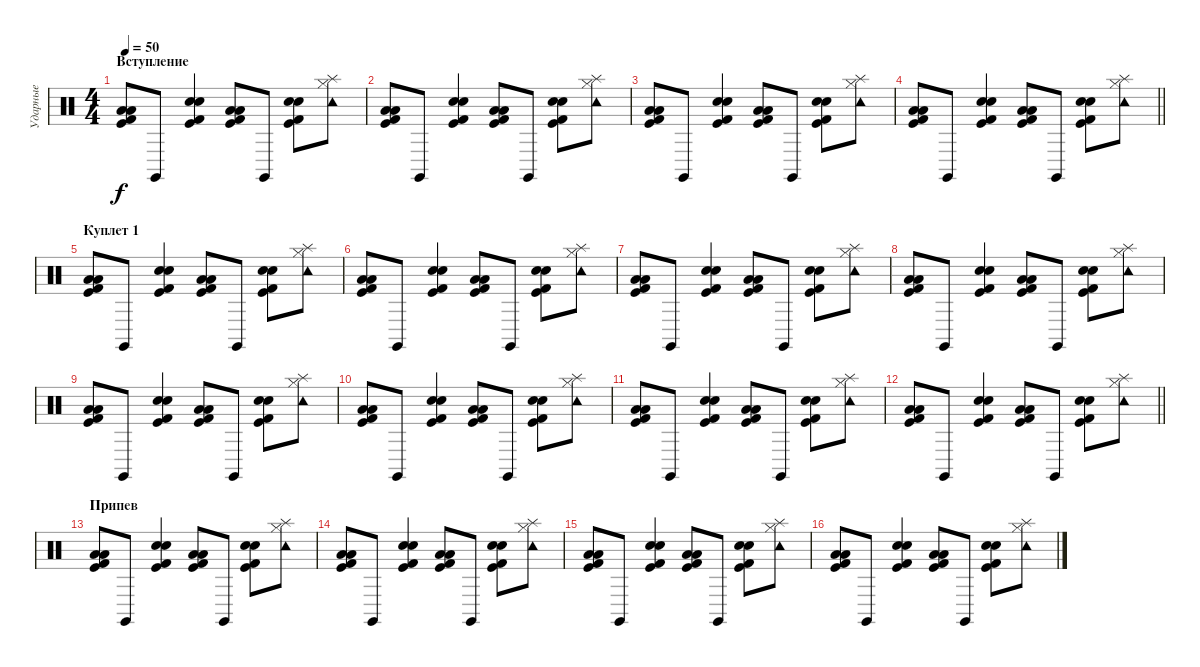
\track ("Ударные" "Ударные") {instrument percussion}
\staff
\articulation defaults
\ts (4 4)
\section ("" "Вступление")
\tempo 50
\clef neutral
\ks c
("Kick (hit) 2" "Low Floor Tom (hit)" "Kick (hit)" "Low Tom (hit)").8{dy f} "Claves (hit)".8 ("Kick (hit) 2" "Electric Snare (hit)" "Kick (hit)" "Snare (hit) 2").4 ("Kick (hit) 2" "Low Floor Tom (hit)" "Kick (hit)" "Low Tom (hit)").8 "Claves (hit)".8 ("Kick (hit) 2" "Electric Snare (hit)" "Kick (hit)" "Snare (hit) 2").8 ("Hi-Hat (closed)" "Splash (hit)" "Tambourine (hit)").8 |
("Kick (hit) 2" "Low Floor Tom (hit)" "Kick (hit)" "Low Tom (hit)").8 "Claves (hit)".8 ("Kick (hit) 2" "Electric Snare (hit)" "Kick (hit)" "Snare (hit) 2").4 ("Kick (hit) 2" "Low Floor Tom (hit)" "Kick (hit)" "Low Tom (hit)").8 "Claves (hit)".8 ("Kick (hit) 2" "Electric Snare (hit)" "Kick (hit)" "Snare (hit) 2").8 ("Hi-Hat (closed)" "Splash (hit)" "Tambourine (hit)").8 |
("Kick (hit) 2" "Low Floor Tom (hit)" "Kick (hit)" "Low Tom (hit)").8 "Claves (hit)".8 ("Kick (hit) 2" "Electric Snare (hit)" "Kick (hit)" "Snare (hit) 2").4 ("Kick (hit) 2" "Low Floor Tom (hit)" "Kick (hit)" "Low Tom (hit)").8 "Claves (hit)".8 ("Kick (hit) 2" "Electric Snare (hit)" "Kick (hit)" "Snare (hit) 2").8 ("Hi-Hat (closed)" "Splash (hit)" "Tambourine (hit)").8 |
\barLineRight lightlight
("Kick (hit) 2" "Low Floor Tom (hit)" "Kick (hit)" "Low Tom (hit)").8 "Claves (hit)".8 ("Kick (hit) 2" "Electric Snare (hit)" "Kick (hit)" "Snare (hit) 2").4 ("Kick (hit) 2" "Low Floor Tom (hit)" "Kick (hit)" "Low Tom (hit)").8 "Claves (hit)".8 ("Kick (hit) 2" "Electric Snare (hit)" "Kick (hit)" "Snare (hit) 2").8 ("Hi-Hat (closed)" "Splash (hit)" "Tambourine (hit)").8 |
\section ("" "Куплет 1")
("Kick (hit) 2" "Low Floor Tom (hit)" "Kick (hit)" "Low Tom (hit)").8 "Claves (hit)".8 ("Kick (hit) 2" "Electric Snare (hit)" "Kick (hit)" "Snare (hit) 2").4 ("Kick (hit) 2" "Low Floor Tom (hit)" "Kick (hit)" "Low Tom (hit)").8 "Claves (hit)".8 ("Kick (hit) 2" "Electric Snare (hit)" "Kick (hit)" "Snare (hit) 2").8 ("Hi-Hat (closed)" "Splash (hit)" "Tambourine (hit)").8 |
("Kick (hit) 2" "Low Floor Tom (hit)" "Kick (hit)" "Low Tom (hit)").8 "Claves (hit)".8 ("Kick (hit) 2" "Electric Snare (hit)" "Kick (hit)" "Snare (hit) 2").4 ("Kick (hit) 2" "Low Floor Tom (hit)" "Kick (hit)" "Low Tom (hit)").8 "Claves (hit)".8 ("Kick (hit) 2" "Electric Snare (hit)" "Kick (hit)" "Snare (hit) 2").8 ("Hi-Hat (closed)" "Splash (hit)" "Tambourine (hit)").8 |
("Kick (hit) 2" "Low Floor Tom (hit)" "Kick (hit)" "Low Tom (hit)").8 "Claves (hit)".8 ("Kick (hit) 2" "Electric Snare (hit)" "Kick (hit)" "Snare (hit) 2").4 ("Kick (hit) 2" "Low Floor Tom (hit)" "Kick (hit)" "Low Tom (hit)").8 "Claves (hit)".8 ("Kick (hit) 2" "Electric Snare (hit)" "Kick (hit)" "Snare (hit) 2").8 ("Hi-Hat (closed)" "Splash (hit)" "Tambourine (hit)").8 |
("Kick (hit) 2" "Low Floor Tom (hit)" "Kick (hit)" "Low Tom (hit)").8 "Claves (hit)".8 ("Kick (hit) 2" "Electric Snare (hit)" "Kick (hit)" "Snare (hit) 2").4 ("Kick (hit) 2" "Low Floor Tom (hit)" "Kick (hit)" "Low Tom (hit)").8 "Claves (hit)".8 ("Kick (hit) 2" "Electric Snare (hit)" "Kick (hit)" "Snare (hit) 2").8 ("Hi-Hat (closed)" "Splash (hit)" "Tambourine (hit)").8 |
("Kick (hit) 2" "Low Floor Tom (hit)" "Kick (hit)" "Low Tom (hit)").8 "Claves (hit)".8 ("Kick (hit) 2" "Electric Snare (hit)" "Kick (hit)" "Snare (hit) 2").4 ("Kick (hit) 2" "Low Floor Tom (hit)" "Kick (hit)" "Low Tom (hit)").8 "Claves (hit)".8 ("Kick (hit) 2" "Electric Snare (hit)" "Kick (hit)" "Snare (hit) 2").8 ("Hi-Hat (closed)" "Splash (hit)" "Tambourine (hit)").8 |
("Kick (hit) 2" "Low Floor Tom (hit)" "Kick (hit)" "Low Tom (hit)").8 "Claves (hit)".8 ("Kick (hit) 2" "Electric Snare (hit)" "Kick (hit)" "Snare (hit) 2").4 ("Kick (hit) 2" "Low Floor Tom (hit)" "Kick (hit)" "Low Tom (hit)").8 "Claves (hit)".8 ("Kick (hit) 2" "Electric Snare (hit)" "Kick (hit)" "Snare (hit) 2").8 ("Hi-Hat (closed)" "Splash (hit)" "Tambourine (hit)").8 |
("Kick (hit) 2" "Low Floor Tom (hit)" "Kick (hit)" "Low Tom (hit)").8 "Claves (hit)".8 ("Kick (hit) 2" "Electric Snare (hit)" "Kick (hit)" "Snare (hit) 2").4 ("Kick (hit) 2" "Low Floor Tom (hit)" "Kick (hit)" "Low Tom (hit)").8 "Claves (hit)".8 ("Kick (hit) 2" "Electric Snare (hit)" "Kick (hit)" "Snare (hit) 2").8 ("Hi-Hat (closed)" "Splash (hit)" "Tambourine (hit)").8 |
\barLineRight lightlight
("Kick (hit) 2" "Low Floor Tom (hit)" "Kick (hit)" "Low Tom (hit)").8 "Claves (hit)".8 ("Kick (hit) 2" "Electric Snare (hit)" "Kick (hit)" "Snare (hit) 2").4 ("Kick (hit) 2" "Low Floor Tom (hit)" "Kick (hit)" "Low Tom (hit)").8 "Claves (hit)".8 ("Kick (hit) 2" "Electric Snare (hit)" "Kick (hit)" "Snare (hit) 2").8 ("Hi-Hat (closed)" "Splash (hit)" "Tambourine (hit)").8 |
\section ("" "Припев")
("Kick (hit) 2" "Low Floor Tom (hit)" "Kick (hit)" "Low Tom (hit)").8 "Claves (hit)".8 ("Kick (hit) 2" "Electric Snare (hit)" "Kick (hit)" "Snare (hit) 2").4 ("Kick (hit) 2" "Low Floor Tom (hit)" "Kick (hit)" "Low Tom (hit)").8 "Claves (hit)".8 ("Kick (hit) 2" "Electric Snare (hit)" "Kick (hit)" "Snare (hit) 2").8 ("Hi-Hat (closed)" "Splash (hit)" "Tambourine (hit)").8 |
("Kick (hit) 2" "Low Floor Tom (hit)" "Kick (hit)" "Low Tom (hit)").8 "Claves (hit)".8 ("Kick (hit) 2" "Electric Snare (hit)" "Kick (hit)" "Snare (hit) 2").4 ("Kick (hit) 2" "Low Floor Tom (hit)" "Kick (hit)" "Low Tom (hit)").8 "Claves (hit)".8 ("Kick (hit) 2" "Electric Snare (hit)" "Kick (hit)" "Snare (hit) 2").8 ("Hi-Hat (closed)" "Splash (hit)" "Tambourine (hit)").8 |
("Kick (hit) 2" "Low Floor Tom (hit)" "Kick (hit)" "Low Tom (hit)").8 "Claves (hit)".8 ("Kick (hit) 2" "Electric Snare (hit)" "Kick (hit)" "Snare (hit) 2").4 ("Kick (hit) 2" "Low Floor Tom (hit)" "Kick (hit)" "Low Tom (hit)").8 "Claves (hit)".8 ("Kick (hit) 2" "Electric Snare (hit)" "Kick (hit)" "Snare (hit) 2").8 ("Hi-Hat (closed)" "Splash (hit)" "Tambourine (hit)").8 |
("Kick (hit) 2" "Low Floor Tom (hit)" "Kick (hit)" "Low Tom (hit)").8 "Claves (hit)".8 ("Kick (hit) 2" "Electric Snare (hit)" "Kick (hit)" "Snare (hit) 2").4 ("Kick (hit) 2" "Low Floor Tom (hit)" "Kick (hit)" "Low Tom (hit)").8 "Claves (hit)".8 ("Kick (hit) 2" "Electric Snare (hit)" "Kick (hit)" "Snare (hit) 2").8 ("Hi-Hat (closed)" "Splash (hit)" "Tambourine (hit)").8
